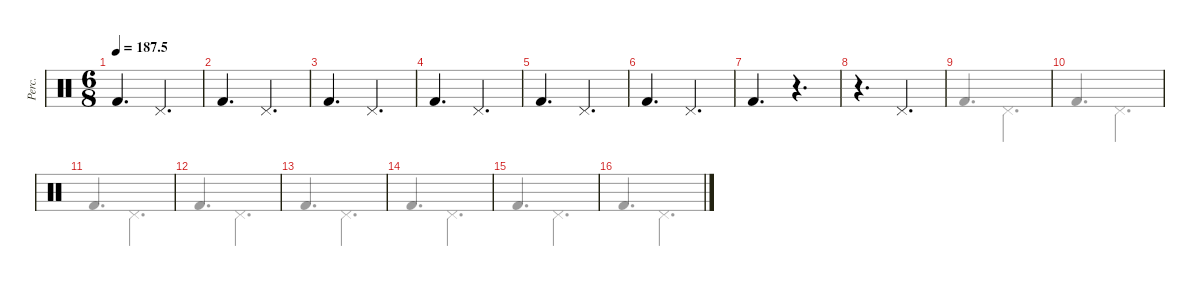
\defaultSystemsLayout 4
\hideDynamics
\bracketExtendMode groupsimilarinstruments
\otherSystemsTrackNameOrientation horizontal
\track ("Percussions" "Perc.") {instrument percussion}
\staff {score}
\articulation defaults
\voice
\ts (6 8)
\tempo
187.5
\accidentals auto
\clef neutral
\ottava regular
\simile none
\ks c "Kick (hit) 2".4{d dy mf beam Up} "Pedal Hi-Hat (hit)".4{d beam Up}
|
"Kick (hit) 2".4{d beam Up} "Pedal Hi-Hat (hit)".4{d beam Up} |
"Kick (hit) 2".4{d beam Up} "Pedal Hi-Hat (hit)".4{d beam Up} |
"Kick (hit) 2".4{d beam Up} "Pedal Hi-Hat (hit)".4{d beam Up} |
"Kick (hit) 2".4{d beam Up} "Pedal Hi-Hat (hit)".4{d beam Up} |
"Kick (hit) 2".4{d beam Up} "Pedal Hi-Hat (hit)".4{d beam Up} |
"Kick (hit) 2".4{d beam Up} r.4{d beam Up} |
r.4{d beam Down} "Pedal Hi-Hat (hit)".4{d beam Up} |
|
|
|
|
|
|
|
\voice
\clef neutral
\ottava regular
\simile none
\ks c
|
|
|
|
|
|
|
|
"Kick (hit) 2".4{d beam Up} "Pedal Hi-Hat (hit)".4{d beam Down} |
"Kick (hit) 2".4{d beam Up} "Pedal Hi-Hat (hit)".4{d beam Down} |
"Kick (hit) 2".4{d beam Up} "Pedal Hi-Hat (hit)".4{d beam Down} |
"Kick (hit) 2".4{d beam Up} "Pedal Hi-Hat (hit)".4{d beam Down} |
"Kick (hit) 2".4{d beam Up} "Pedal Hi-Hat (hit)".4{d beam Down} |
"Kick (hit) 2".4{d beam Up} "Pedal Hi-Hat (hit)".4{d beam Down} |
"Kick (hit) 2".4{d beam Up} "Pedal Hi-Hat (hit)".4{d beam Down} |
"Kick (hit) 2".4{d beam Up} "Pedal Hi-Hat (hit)".4{d beam Down}
